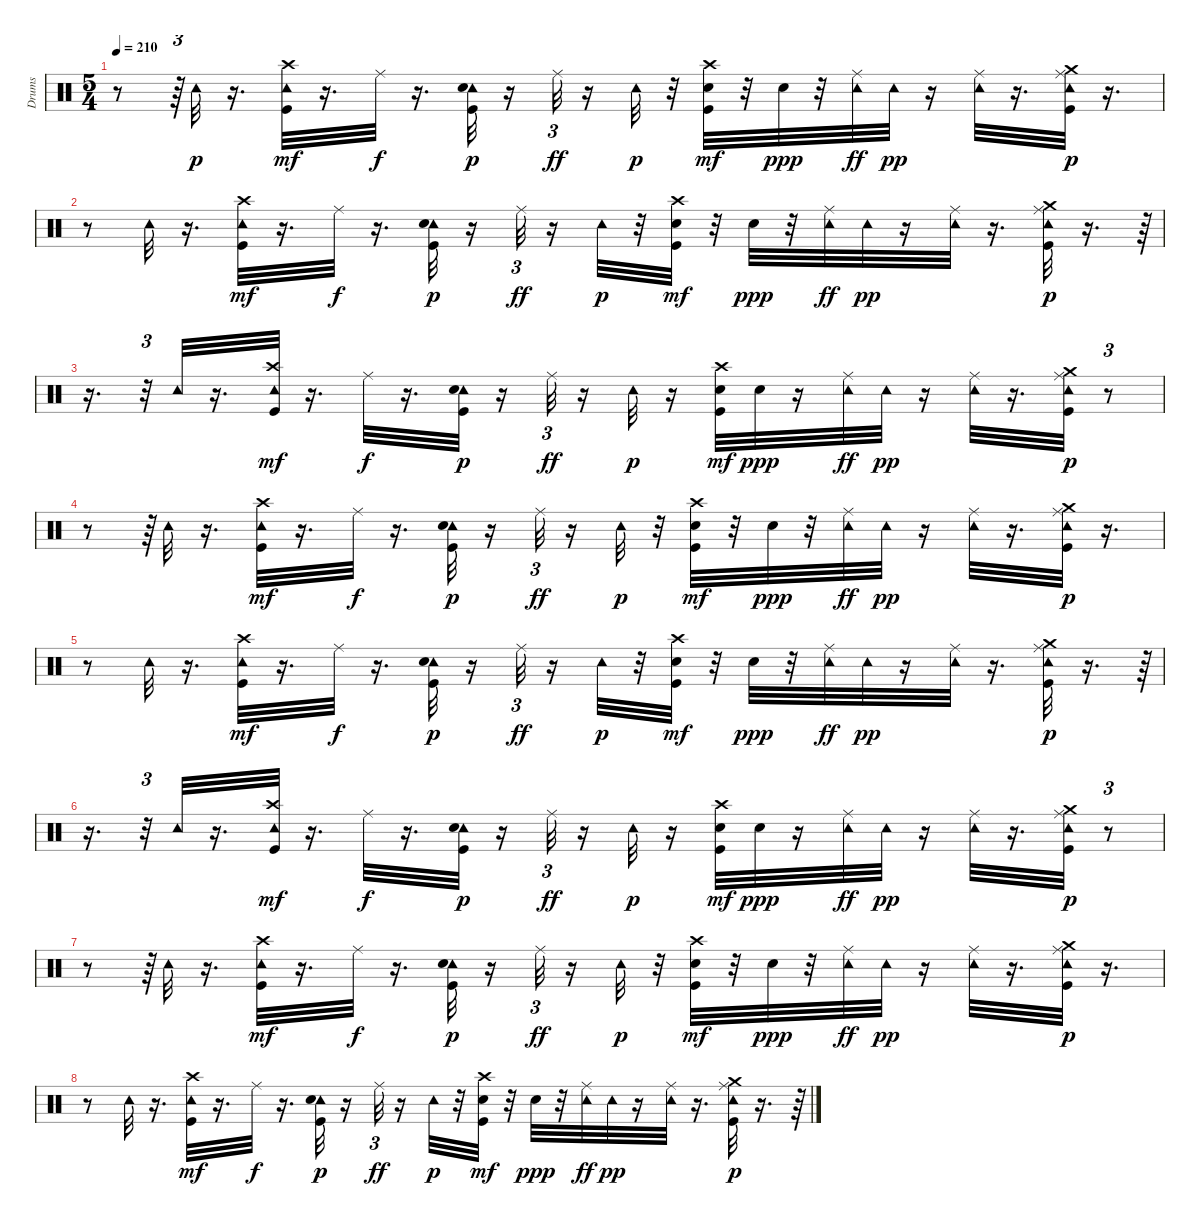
\track ("Drums" "Drums") {instrument percussion}
\staff {score}
\articulation defaults
\ts (5 4)
\tempo 210
\clef neutral
\ks c
r.8{dy p} r.64{tu (3 2)} "Tambourine (hit)".32 r.16{d} ("Tambourine (hit)" "Crash high (hit)" "Kick (hit)").32{dy mf} r.16{d} "Ride (middle)".32{dy f} r.16{d} ("Tambourine (hit)" "Snare (hit) 2" "Kick (hit)").32{dy p} r.16 "Ride (middle)".32{tu (3 2) dy ff} r.16 "Tambourine (hit)".32{dy p} r.32 ("Crash high (hit)" "Kick (hit)" "Snare (hit) 2").32{dy mf} r.32 "Snare (hit)".32{dy ppp} r.32 ("Tambourine (hit)" "Ride (middle)").32{dy ff} "Tambourine (hit)".32{dy pp} r.16 ("Ride (middle)" "Tambourine (hit)").32 r.16{d} ("Crash medium (hit)" "Tambourine (hit)" "Ride (middle)" "Kick (hit)").32{dy p} r.16{d} |
r.8 "Tambourine (hit)".32 r.16{d} ("Tambourine (hit)" "Crash high (hit)" "Kick (hit)").32{dy mf} r.16{d} "Ride (middle)".32{dy f} r.16{d} ("Tambourine (hit)" "Snare (hit) 2" "Kick (hit)").32{dy p} r.16 "Ride (middle)".32{tu (3 2) dy ff} r.16 "Tambourine (hit)".32{dy p} r.32 ("Crash high (hit)" "Kick (hit)" "Snare (hit) 2").32{dy mf} r.32 "Snare (hit)".32{dy ppp} r.32 ("Tambourine (hit)" "Ride (middle)").32{dy ff} "Tambourine (hit)".32{dy pp} r.16 ("Ride (middle)" "Tambourine (hit)").32 r.16{d} ("Crash medium (hit)" "Tambourine (hit)" "Ride (middle)" "Kick (hit)").32{dy p} r.16{d} r.64{tu (3 2)} |
r.16{d} r.32{tu (3 2)} "Tambourine (hit)".32 r.16{d} ("Tambourine (hit)" "Crash high (hit)" "Kick (hit)").32{dy mf} r.16{d} "Ride (middle)".32{dy f} r.16{d} ("Tambourine (hit)" "Snare (hit) 2" "Kick (hit)").32{dy p} r.16 "Ride (middle)".32{tu (3 2) dy ff} r.16 "Tambourine (hit)".32{dy p} r.16 ("Crash high (hit)" "Kick (hit)" "Snare (hit) 2").32{dy mf} "Snare (hit)".32{dy ppp} r.16 ("Tambourine (hit)" "Ride (middle)").32{dy ff} "Tambourine (hit)".32{dy pp} r.16 ("Ride (middle)" "Tambourine (hit)").32 r.16{d} ("Crash medium (hit)" "Tambourine (hit)" "Ride (middle)" "Kick (hit)").32{dy p} r.8{tu (3 2)} |
r.8 r.64{tu (3 2)} "Tambourine (hit)".32 r.16{d} ("Tambourine (hit)" "Crash high (hit)" "Kick (hit)").32{dy mf} r.16{d} "Ride (middle)".32{dy f} r.16{d} ("Tambourine (hit)" "Snare (hit) 2" "Kick (hit)").32{dy p} r.16 "Ride (middle)".32{tu (3 2) dy ff} r.16 "Tambourine (hit)".32{dy p} r.32 ("Crash high (hit)" "Kick (hit)" "Snare (hit) 2").32{dy mf} r.32 "Snare (hit)".32{dy ppp} r.32 ("Tambourine (hit)" "Ride (middle)").32{dy ff} "Tambourine (hit)".32{dy pp} r.16 ("Ride (middle)" "Tambourine (hit)").32 r.16{d} ("Crash medium (hit)" "Tambourine (hit)" "Ride (middle)" "Kick (hit)").32{dy p} r.16{d} |
r.8 "Tambourine (hit)".32 r.16{d} ("Tambourine (hit)" "Crash high (hit)" "Kick (hit)").32{dy mf} r.16{d} "Ride (middle)".32{dy f} r.16{d} ("Tambourine (hit)" "Snare (hit) 2" "Kick (hit)").32{dy p} r.16 "Ride (middle)".32{tu (3 2) dy ff} r.16 "Tambourine (hit)".32{dy p} r.32 ("Crash high (hit)" "Kick (hit)" "Snare (hit) 2").32{dy mf} r.32 "Snare (hit)".32{dy ppp} r.32 ("Tambourine (hit)" "Ride (middle)").32{dy ff} "Tambourine (hit)".32{dy pp} r.16 ("Ride (middle)" "Tambourine (hit)").32 r.16{d} ("Crash medium (hit)" "Tambourine (hit)" "Ride (middle)" "Kick (hit)").32{dy p} r.16{d} r.64{tu (3 2)} |
r.16{d} r.32{tu (3 2)} "Tambourine (hit)".32 r.16{d} ("Tambourine (hit)" "Crash high (hit)" "Kick (hit)").32{dy mf} r.16{d} "Ride (middle)".32{dy f} r.16{d} ("Tambourine (hit)" "Snare (hit) 2" "Kick (hit)").32{dy p} r.16 "Ride (middle)".32{tu (3 2) dy ff} r.16 "Tambourine (hit)".32{dy p} r.16 ("Crash high (hit)" "Kick (hit)" "Snare (hit) 2").32{dy mf} "Snare (hit)".32{dy ppp} r.16 ("Tambourine (hit)" "Ride (middle)").32{dy ff} "Tambourine (hit)".32{dy pp} r.16 ("Ride (middle)" "Tambourine (hit)").32 r.16{d} ("Crash medium (hit)" "Tambourine (hit)" "Ride (middle)" "Kick (hit)").32{dy p} r.8{tu (3 2)} |
r.8 r.64{tu (3 2)} "Tambourine (hit)".32 r.16{d} ("Tambourine (hit)" "Crash high (hit)" "Kick (hit)").32{dy mf} r.16{d} "Ride (middle)".32{dy f} r.16{d} ("Tambourine (hit)" "Snare (hit) 2" "Kick (hit)").32{dy p} r.16 "Ride (middle)".32{tu (3 2) dy ff} r.16 "Tambourine (hit)".32{dy p} r.32 ("Crash high (hit)" "Kick (hit)" "Snare (hit) 2").32{dy mf} r.32 "Snare (hit)".32{dy ppp} r.32 ("Tambourine (hit)" "Ride (middle)").32{dy ff} "Tambourine (hit)".32{dy pp} r.16 ("Ride (middle)" "Tambourine (hit)").32 r.16{d} ("Crash medium (hit)" "Tambourine (hit)" "Ride (middle)" "Kick (hit)").32{dy p} r.16{d} |
r.8 "Tambourine (hit)".32 r.16{d} ("Tambourine (hit)" "Crash high (hit)" "Kick (hit)").32{dy mf} r.16{d} "Ride (middle)".32{dy f} r.16{d} ("Tambourine (hit)" "Snare (hit) 2" "Kick (hit)").32{dy p} r.16 "Ride (middle)".32{tu (3 2) dy ff} r.16 "Tambourine (hit)".32{dy p} r.32 ("Crash high (hit)" "Kick (hit)" "Snare (hit) 2").32{dy mf} r.32 "Snare (hit)".32{dy ppp} r.32 ("Tambourine (hit)" "Ride (middle)").32{dy ff} "Tambourine (hit)".32{dy pp} r.16 ("Ride (middle)" "Tambourine (hit)").32 r.16{d} ("Crash medium (hit)" "Tambourine (hit)" "Ride (middle)" "Kick (hit)").32{dy p} r.16{d} r.64{tu (3 2)}
